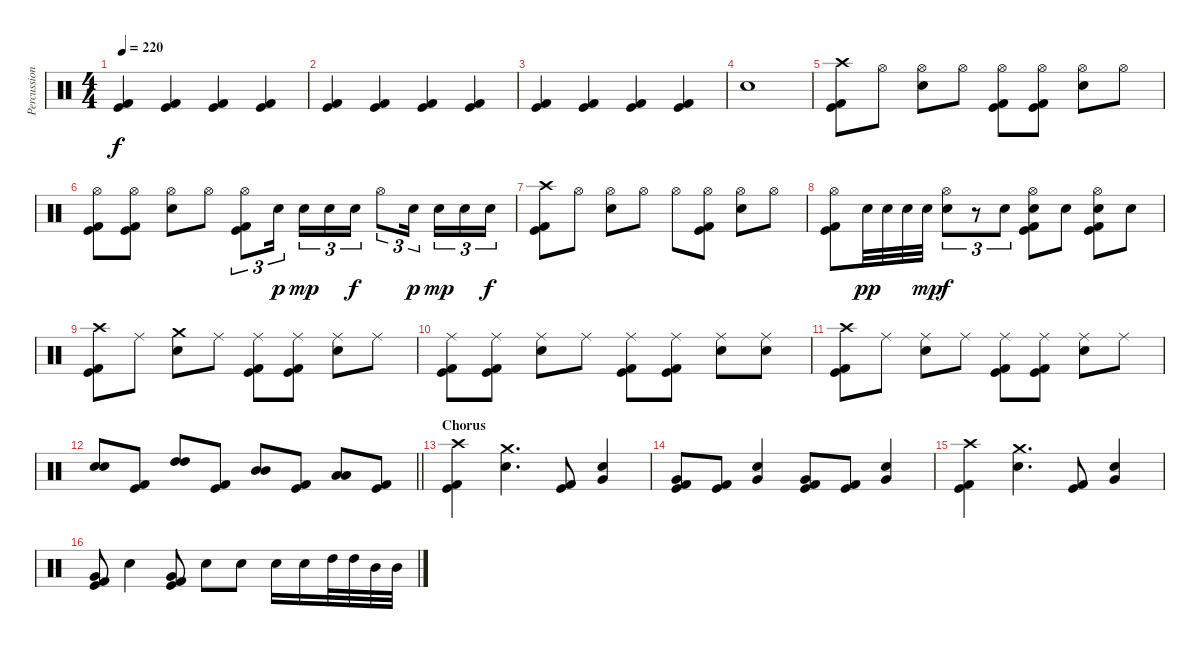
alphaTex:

\track ("Percussion" "Percussion") {instrument percussion}
\staff {score}
\articulation defaults
\ts (4 4)
\tempo 220
\clef neutral
\ks c
("Kick (hit)" "Kick (hit) 2").4{dy f} ("Kick (hit)" "Kick (hit) 2").4 ("Kick (hit)" "Kick (hit) 2").4 ("Kick (hit)" "Kick (hit) 2").4 |
("Kick (hit)" "Kick (hit) 2").4 ("Kick (hit)" "Kick (hit) 2").4 ("Kick (hit)" "Kick (hit) 2").4 ("Kick (hit)" "Kick (hit) 2").4 |
("Kick (hit)" "Kick (hit) 2").4 ("Kick (hit)" "Kick (hit) 2").4 ("Kick (hit)" "Kick (hit) 2").4 ("Kick (hit)" "Kick (hit) 2").4 |
"Electric Snare (hit)".1 |
("Crash high (hit)" "Kick (hit)" "Kick (hit) 2").8 "Hi-Hat (open)".8 ("Hi-Hat (open)" "Electric Snare (hit)").8 "Hi-Hat (open)".8 ("Hi-Hat (open)" "Kick (hit)" "Kick (hit) 2").8 ("Hi-Hat (open)" "Kick (hit)" "Kick (hit) 2").8 ("Hi-Hat (open)" "Electric Snare (hit)").8 "Hi-Hat (open)".8 |
("Hi-Hat (open)" "Kick (hit)" "Kick (hit) 2").8 ("Hi-Hat (open)" "Kick (hit)" "Kick (hit) 2").8 ("Hi-Hat (open)" "Electric Snare (hit)").8 "Hi-Hat (open)".8 ("Hi-Hat (open)" "Kick (hit)" "Kick (hit) 2").8{tu (3 2)} "Electric Snare (hit)".16{tu (3 2) dy p beam splitsecondary} "Electric Snare (hit)".16{tu (3 2) dy mp} "Electric Snare (hit)".16{tu (3 2)} "Electric Snare (hit)".16{tu (3 2) dy f} "Hi-Hat (open)".8{tu (3 2)} "Electric Snare (hit)".16{tu (3 2) dy p beam splitsecondary} "Electric Snare (hit)".16{tu (3 2) dy mp} "Electric Snare (hit)".16{tu (3 2)} "Electric Snare (hit)".16{tu (3 2) dy f} |
("Crash high (hit)" "Kick (hit)" "Kick (hit) 2").8 "Hi-Hat (open)".8 ("Hi-Hat (open)" "Electric Snare (hit)").8 "Hi-Hat (open)".8 "Hi-Hat (open)".8 ("Hi-Hat (open)" "Kick (hit)" "Kick (hit) 2").8 ("Hi-Hat (open)" "Electric Snare (hit)").8 "Hi-Hat (open)".8 |
("Hi-Hat (open)" "Kick (hit)" "Kick (hit) 2").8 "Electric Snare (hit)".32{dy pp} "Electric Snare (hit)".32 "Electric Snare (hit)".32 "Electric Snare (hit)".32{dy mp} ("Hi-Hat (open)" "Electric Snare (hit)").8{tu (3 2) dy f} r.8{tu (3 2)} "Electric Snare (hit)".8{tu (3 2)} ("Hi-Hat (open)" "Electric Snare (hit)" "Kick (hit)" "Kick (hit) 2").8 "Electric Snare (hit)".8 ("Hi-Hat (open)" "Electric Snare (hit)" "Kick (hit)" "Kick (hit) 2").8 "Electric Snare (hit)".8 |
("Crash high (hit)" "Kick (hit)" "Kick (hit) 2").8 "Ride (middle)".8 ("Crash medium (hit)" "Electric Snare (hit)").8 "Ride (middle)".8 ("Ride (middle)" "Kick (hit)" "Kick (hit) 2").8 ("Ride (middle)" "Kick (hit)" "Kick (hit) 2").8 ("Ride (middle)" "Electric Snare (hit)").8 "Ride (middle)".8 |
("Ride (middle)" "Kick (hit)" "Kick (hit) 2").8 ("Ride (middle)" "Kick (hit)" "Kick (hit) 2").8 ("Ride (middle)" "Electric Snare (hit)").8 "Ride (middle)".8 ("Ride (middle)" "Kick (hit)" "Kick (hit) 2").8 ("Ride (middle)" "Kick (hit)" "Kick (hit) 2").8 ("Ride (middle)" "Electric Snare (hit)").8 ("Ride (middle)" "Electric Snare (hit)").8 |
("Crash high (hit)" "Kick (hit)" "Kick (hit) 2").8 "Ride (middle)".8 ("Ride (middle)" "Electric Snare (hit)").8 "Ride (middle)".8 ("Ride (middle)" "Kick (hit)" "Kick (hit) 2").8 ("Ride (middle)" "Kick (hit)" "Kick (hit) 2").8 ("Ride (middle)" "Electric Snare (hit)").8 "Ride (middle)".8 |
\barLineRight lightlight
("Electric Snare (hit)" "Electric Snare (hit)").8 ("Kick (hit)" "Kick (hit) 2").8 ("High Tom (hit)" "High Tom (hit)").8 ("Kick (hit)" "Kick (hit) 2").8 ("Mid Tom (hit)" "Mid Tom (hit)").8 ("Kick (hit)" "Kick (hit) 2").8 ("Low Tom (hit)" "Low Tom (hit)").8 ("Kick (hit)" "Kick (hit) 2").8 |
\section ("" "Chorus")
("Crash high (hit)" "Kick (hit)" "Kick (hit) 2").4 ("Crash medium (hit)" "Electric Snare (hit)").4{d} ("Kick (hit)" "Kick (hit) 2").8 ("Very Low Tom (hit)" "Electric Snare (hit)").4 |
("Very Low Tom (hit)" "Kick (hit)" "Kick (hit) 2").8 ("Kick (hit)" "Kick (hit) 2").8 ("Very Low Tom (hit)" "Electric Snare (hit)").4 ("Very Low Tom (hit)" "Kick (hit)" "Kick (hit) 2").8 ("Kick (hit)" "Kick (hit) 2").8 ("Very Low Tom (hit)" "Electric Snare (hit)").4 |
("Crash high (hit)" "Kick (hit)" "Kick (hit) 2").4 ("Crash medium (hit)" "Electric Snare (hit)").4{d} ("Kick (hit)" "Kick (hit) 2").8 ("Very Low Tom (hit)" "Electric Snare (hit)").4 |
("Very Low Tom (hit)" "Kick (hit)" "Kick (hit) 2").8 "Electric Snare (hit)".4 ("Very Low Tom (hit)" "Kick (hit)" "Kick (hit) 2").8 "Electric Snare (hit)".8 "Electric Snare (hit)".8 "Electric Snare (hit)".16 "Electric Snare (hit)".16 "High Tom (hit)".32 "High Tom (hit)".32 "Mid Tom (hit)".32 "Mid Tom (hit)".32
